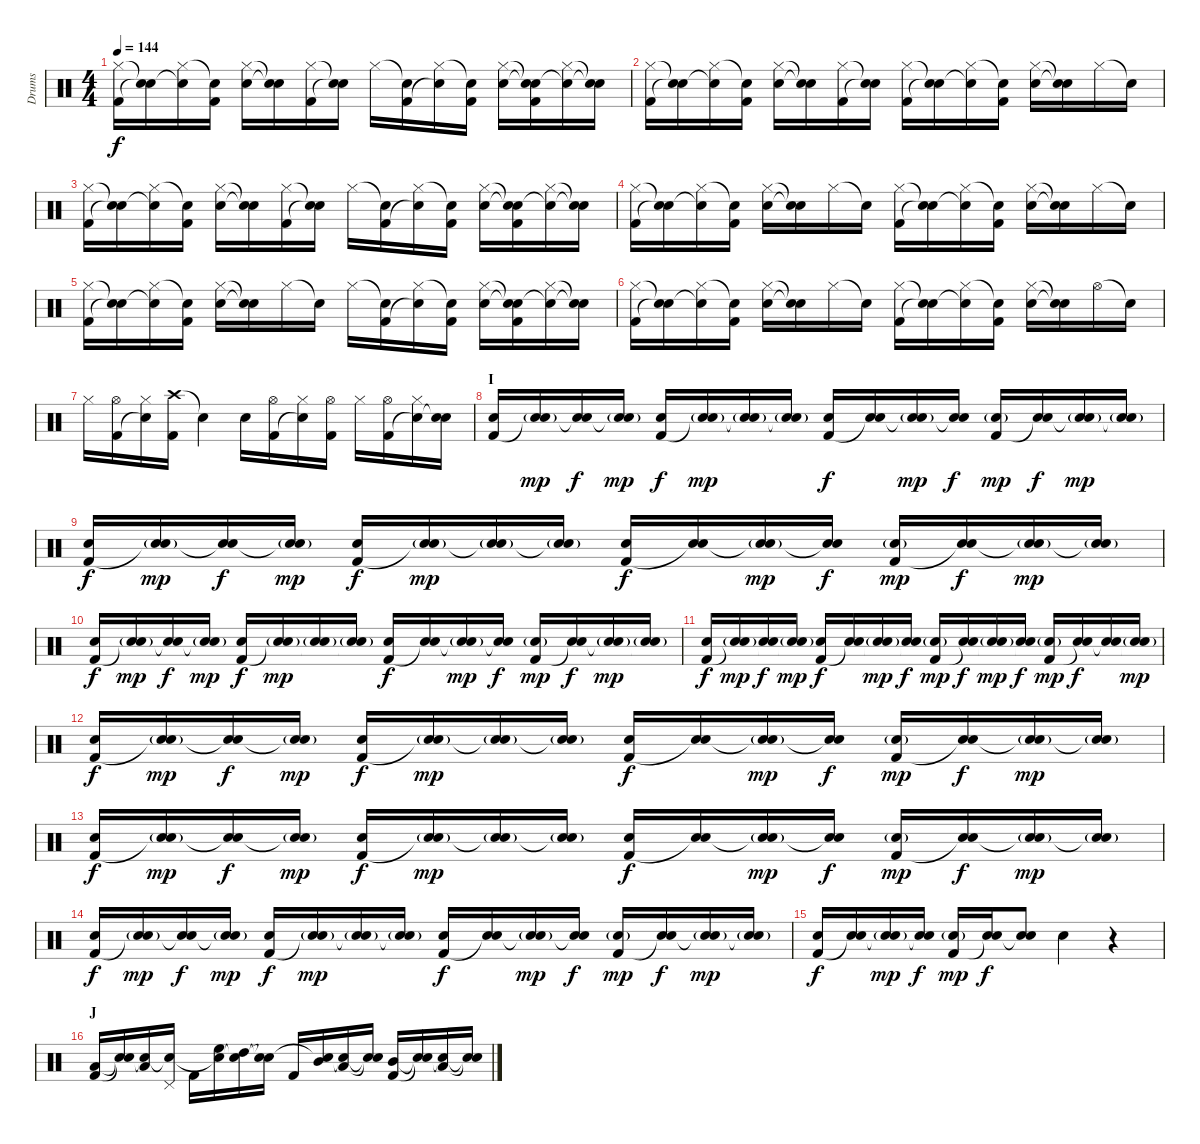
\track ("Drums" "Drums") {instrument percussion}
\staff {score}
\articulation defaults
\ts (4 4)
\tempo 144
\clef neutral
\ks c
("Hi-Hat (closed)" "Kick (hit) 2").16{dy f} ("Snare (hit)"{t} "Snare (hit)"{t}).16 ("Hi-Hat (closed)" "Snare (hit)"{t}).16 ("Snare (hit)"{t} "Kick (hit) 2").16 ("Hi-Hat (closed)" "Snare (hit) 2").16 ("Snare (hit)"{t} "Snare (hit)"{t}).16 ("Hi-Hat (closed)" "Kick (hit) 2").16 ("Snare (hit)"{t} "Snare (hit)"{t}).16 "Hi-Hat (closed)".16 ("Snare (hit)"{t} "Kick (hit) 2").16 ("Hi-Hat (closed)" "Snare (hit)"{t}).16 ("Snare (hit)"{t} "Kick (hit) 2").16 ("Hi-Hat (closed)" "Snare (hit) 2").16 ("Snare (hit)"{t} "Snare (hit)"{t} "Kick (hit) 2").16 ("Hi-Hat (closed)" "Snare (hit)"{t}).16 ("Snare (hit)"{t} "Snare (hit)"{t}).16 |
("Hi-Hat (closed)" "Kick (hit) 2").16 ("Snare (hit)"{t} "Snare (hit)"{t}).16 ("Hi-Hat (closed)" "Snare (hit)"{t}).16 ("Snare (hit)"{t} "Kick (hit) 2").16 ("Hi-Hat (closed)" "Snare (hit) 2").16 ("Snare (hit)"{t} "Snare (hit)"{t}).16 ("Hi-Hat (closed)" "Kick (hit) 2").16 ("Snare (hit)"{t} "Snare (hit)"{t}).16 ("Hi-Hat (closed)" "Kick (hit) 2").16 ("Snare (hit)"{t} "Snare (hit)"{t}).16 ("Hi-Hat (closed)" "Snare (hit)"{t}).16 ("Snare (hit)"{t} "Kick (hit) 2").16 ("Hi-Hat (closed)" "Snare (hit) 2").16 ("Snare (hit)"{t} "Snare (hit)"{t}).16 "Hi-Hat (closed)".16 "Snare (hit)"{t}.16 |
("Hi-Hat (closed)" "Kick (hit) 2").16 ("Snare (hit)"{t} "Snare (hit)"{t}).16 ("Hi-Hat (closed)" "Snare (hit)"{t}).16 ("Snare (hit)"{t} "Kick (hit) 2").16 ("Hi-Hat (closed)" "Snare (hit) 2").16 ("Snare (hit)"{t} "Snare (hit)"{t}).16 ("Hi-Hat (closed)" "Kick (hit) 2").16 ("Snare (hit)"{t} "Snare (hit)"{t}).16 "Hi-Hat (closed)".16 ("Snare (hit)"{t} "Kick (hit) 2").16 ("Hi-Hat (closed)" "Snare (hit)"{t}).16 ("Snare (hit)"{t} "Kick (hit) 2").16 ("Hi-Hat (closed)" "Snare (hit) 2").16 ("Snare (hit)"{t} "Snare (hit)"{t} "Kick (hit) 2").16 ("Hi-Hat (closed)" "Snare (hit)"{t}).16 ("Snare (hit)"{t} "Snare (hit)"{t}).16 |
("Hi-Hat (closed)" "Kick (hit) 2").16 ("Snare (hit)"{t} "Snare (hit)"{t}).16 ("Hi-Hat (closed)" "Snare (hit)"{t}).16 ("Snare (hit)"{t} "Kick (hit) 2").16 ("Hi-Hat (closed)" "Snare (hit) 2").16 ("Snare (hit)"{t} "Snare (hit)"{t}).16 "Hi-Hat (closed)".16 "Snare (hit)"{t}.16 ("Hi-Hat (closed)" "Kick (hit) 2").16 ("Snare (hit)"{t} "Snare (hit)"{t}).16 ("Hi-Hat (closed)" "Snare (hit)"{t}).16 ("Snare (hit)"{t} "Kick (hit) 2").16 ("Hi-Hat (closed)" "Snare (hit) 2").16 ("Snare (hit)"{t} "Snare (hit)"{t}).16 "Hi-Hat (closed)".16 "Snare (hit)"{t}.16 |
("Hi-Hat (closed)" "Kick (hit) 2").16 ("Snare (hit)"{t} "Snare (hit)"{t}).16 ("Hi-Hat (closed)" "Snare (hit)"{t}).16 ("Snare (hit)"{t} "Kick (hit) 2").16 ("Hi-Hat (closed)" "Snare (hit) 2").16 ("Snare (hit)"{t} "Snare (hit)"{t}).16 "Hi-Hat (closed)".16 "Snare (hit)"{t}.16 "Hi-Hat (closed)".16 ("Snare (hit)"{t} "Kick (hit) 2").16 ("Hi-Hat (closed)" "Snare (hit)"{t}).16 ("Snare (hit)"{t} "Kick (hit) 2").16 ("Hi-Hat (closed)" "Snare (hit) 2").16 ("Snare (hit)"{t} "Snare (hit)"{t} "Kick (hit) 2").16 ("Hi-Hat (closed)" "Snare (hit)"{t}).16 ("Snare (hit)"{t} "Snare (hit)"{t}).16 |
("Hi-Hat (closed)" "Kick (hit) 2").16 ("Snare (hit)"{t} "Snare (hit)"{t}).16 ("Hi-Hat (closed)" "Snare (hit)"{t}).16 ("Snare (hit)"{t} "Kick (hit) 2").16 ("Hi-Hat (closed)" "Snare (hit) 2").16 ("Snare (hit)"{t} "Snare (hit)"{t}).16 "Hi-Hat (closed)".16 "Snare (hit)"{t}.16 ("Hi-Hat (closed)" "Kick (hit) 2").16 ("Snare (hit)"{t} "Snare (hit)"{t}).16 ("Hi-Hat (closed)" "Snare (hit)"{t}).16 ("Snare (hit)"{t} "Kick (hit) 2").16 ("Hi-Hat (closed)" "Snare (hit) 2").16 ("Snare (hit)"{t} "Snare (hit)"{t}).16 "Hi-Hat (open)".16 "Snare (hit)"{t}.16 |
"Hi-Hat (closed)".16 ("Hi-Hat (open)" "Kick (hit) 2").16 ("Hi-Hat (closed)" "Snare (hit)"{t}).16 ("Crash high (hit)" "Kick (hit) 2").16 "Snare (hit)"{t}.4 "Snare (hit) 2".16 ("Hi-Hat (open)" "Kick (hit) 2").16 ("Hi-Hat (closed)" "Snare (hit)"{t}).16 ("Hi-Hat (open)" "Kick (hit) 2").16 "Hi-Hat (closed)".16 ("Hi-Hat (open)" "Kick (hit) 2").16 ("Hi-Hat (closed)" "Snare (hit)"{t}).16 ("Snare (hit) 2" "Snare (hit)"{t}).16 |
\section ("" "I")
("Snare (hit) 2" "Kick (hit) 2").16 ("Snare (hit) 2"{g} "Snare (hit)"{t}).16{dy mp} ("Snare (hit) 2" "Snare (hit)"{t}).16{dy f} ("Snare (hit) 2"{g} "Snare (hit)"{t}).16{dy mp} ("Snare (hit) 2" "Kick (hit) 2").16{dy f} ("Snare (hit) 2"{g} "Snare (hit)"{t}).16{dy mp} ("Snare (hit) 2"{g} "Snare (hit)"{t}).16 ("Snare (hit) 2"{g} "Snare (hit)"{t}).16 ("Snare (hit) 2" "Kick (hit) 2").16{dy f} ("Snare (hit) 2" "Snare (hit)"{t}).16 ("Snare (hit) 2"{g} "Snare (hit)"{t}).16{dy mp} ("Snare (hit) 2" "Snare (hit)"{t}).16{dy f} ("Snare (hit) 2"{g} "Kick (hit) 2").16{dy mp} ("Snare (hit) 2" "Snare (hit)"{t}).16{dy f} ("Snare (hit) 2"{g} "Snare (hit)"{t}).16{dy mp} ("Snare (hit) 2"{g} "Snare (hit)"{t}).16 |
("Snare (hit) 2" "Kick (hit) 2").16{dy f} ("Snare (hit) 2"{g} "Snare (hit)"{t}).16{dy mp} ("Snare (hit) 2" "Snare (hit)"{t}).16{dy f} ("Snare (hit) 2"{g} "Snare (hit)"{t}).16{dy mp} ("Snare (hit) 2" "Kick (hit) 2").16{dy f} ("Snare (hit) 2"{g} "Snare (hit)"{t}).16{dy mp} ("Snare (hit) 2"{g} "Snare (hit)"{t}).16 ("Snare (hit) 2"{g} "Snare (hit)"{t}).16 ("Snare (hit) 2" "Kick (hit) 2").16{dy f} ("Snare (hit) 2" "Snare (hit)"{t}).16 ("Snare (hit) 2"{g} "Snare (hit)"{t}).16{dy mp} ("Snare (hit) 2" "Snare (hit)"{t}).16{dy f} ("Snare (hit) 2"{g} "Kick (hit) 2").16{dy mp} ("Snare (hit) 2" "Snare (hit)"{t}).16{dy f} ("Snare (hit) 2"{g} "Snare (hit)"{t}).16{dy mp} ("Snare (hit) 2"{g} "Snare (hit)"{t}).16 |
("Snare (hit) 2" "Kick (hit) 2").16{dy f} ("Snare (hit) 2"{g} "Snare (hit)"{t}).16{dy mp} ("Snare (hit) 2" "Snare (hit)"{t}).16{dy f} ("Snare (hit) 2"{g} "Snare (hit)"{t}).16{dy mp} ("Snare (hit) 2" "Kick (hit) 2").16{dy f} ("Snare (hit) 2"{g} "Snare (hit)"{t}).16{dy mp} ("Snare (hit) 2"{g} "Snare (hit)"{t}).16 ("Snare (hit) 2"{g} "Snare (hit)"{t}).16 ("Snare (hit) 2" "Kick (hit) 2").16{dy f} ("Snare (hit) 2" "Snare (hit)"{t}).16 ("Snare (hit) 2"{g} "Snare (hit)"{t}).16{dy mp} ("Snare (hit) 2" "Snare (hit)"{t}).16{dy f} ("Snare (hit) 2"{g} "Kick (hit) 2").16{dy mp} ("Snare (hit) 2" "Snare (hit)"{t}).16{dy f} ("Snare (hit) 2"{g} "Snare (hit)"{t}).16{dy mp} ("Snare (hit) 2"{g} "Snare (hit)"{t}).16 |
("Snare (hit) 2" "Kick (hit) 2").16{dy f} ("Snare (hit) 2"{g} "Snare (hit)"{t}).16{dy mp} ("Snare (hit) 2" "Snare (hit)"{t}).16{dy f} ("Snare (hit) 2"{g} "Snare (hit)"{t}).16{dy mp} ("Snare (hit) 2" "Kick (hit) 2").16{dy f} ("Snare (hit) 2" "Snare (hit)"{t}).16 ("Snare (hit) 2"{g} "Snare (hit)"{t}).16{dy mp} ("Snare (hit) 2" "Snare (hit)"{t}).16{dy f} ("Snare (hit) 2"{g} "Kick (hit) 2").16{dy mp} ("Snare (hit) 2" "Snare (hit)"{t}).16{dy f} ("Snare (hit) 2"{g} "Snare (hit)"{t}).16{dy mp} ("Snare (hit) 2" "Snare (hit)"{t}).16{dy f} ("Snare (hit) 2"{g} "Kick (hit) 2").16{dy mp} ("Snare (hit) 2" "Snare (hit)"{t}).16{dy f} ("Snare (hit) 2" "Snare (hit)"{t}).16 ("Snare (hit) 2"{g} "Snare (hit)"{t}).16{dy mp} |
("Snare (hit) 2" "Kick (hit) 2").16{dy f} ("Snare (hit) 2"{g} "Snare (hit)"{t}).16{dy mp} ("Snare (hit) 2" "Snare (hit)"{t}).16{dy f} ("Snare (hit) 2"{g} "Snare (hit)"{t}).16{dy mp} ("Snare (hit) 2" "Kick (hit) 2").16{dy f} ("Snare (hit) 2"{g} "Snare (hit)"{t}).16{dy mp} ("Snare (hit) 2"{g} "Snare (hit)"{t}).16 ("Snare (hit) 2"{g} "Snare (hit)"{t}).16 ("Snare (hit) 2" "Kick (hit) 2").16{dy f} ("Snare (hit) 2" "Snare (hit)"{t}).16 ("Snare (hit) 2"{g} "Snare (hit)"{t}).16{dy mp} ("Snare (hit) 2" "Snare (hit)"{t}).16{dy f} ("Snare (hit) 2"{g} "Kick (hit) 2").16{dy mp} ("Snare (hit) 2" "Snare (hit)"{t}).16{dy f} ("Snare (hit) 2"{g} "Snare (hit)"{t}).16{dy mp} ("Snare (hit) 2"{g} "Snare (hit)"{t}).16 |
("Snare (hit) 2" "Kick (hit) 2").16{dy f} ("Snare (hit) 2"{g} "Snare (hit)"{t}).16{dy mp} ("Snare (hit) 2" "Snare (hit)"{t}).16{dy f} ("Snare (hit) 2"{g} "Snare (hit)"{t}).16{dy mp} ("Snare (hit) 2" "Kick (hit) 2").16{dy f} ("Snare (hit) 2"{g} "Snare (hit)"{t}).16{dy mp} ("Snare (hit) 2"{g} "Snare (hit)"{t}).16 ("Snare (hit) 2"{g} "Snare (hit)"{t}).16 ("Snare (hit) 2" "Kick (hit) 2").16{dy f} ("Snare (hit) 2" "Snare (hit)"{t}).16 ("Snare (hit) 2"{g} "Snare (hit)"{t}).16{dy mp} ("Snare (hit) 2" "Snare (hit)"{t}).16{dy f} ("Snare (hit) 2"{g} "Kick (hit) 2").16{dy mp} ("Snare (hit) 2" "Snare (hit)"{t}).16{dy f} ("Snare (hit) 2"{g} "Snare (hit)"{t}).16{dy mp} ("Snare (hit) 2"{g} "Snare (hit)"{t}).16 |
("Snare (hit) 2" "Kick (hit) 2").16{dy f} ("Snare (hit) 2"{g} "Snare (hit)"{t}).16{dy mp} ("Snare (hit) 2" "Snare (hit)"{t}).16{dy f} ("Snare (hit) 2"{g} "Snare (hit)"{t}).16{dy mp} ("Snare (hit) 2" "Kick (hit) 2").16{dy f} ("Snare (hit) 2"{g} "Snare (hit)"{t}).16{dy mp} ("Snare (hit) 2"{g} "Snare (hit)"{t}).16 ("Snare (hit) 2"{g} "Snare (hit)"{t}).16 ("Snare (hit) 2" "Kick (hit) 2").16{dy f} ("Snare (hit) 2" "Snare (hit)"{t}).16 ("Snare (hit) 2"{g} "Snare (hit)"{t}).16{dy mp} ("Snare (hit) 2" "Snare (hit)"{t}).16{dy f} ("Snare (hit) 2"{g} "Kick (hit) 2").16{dy mp} ("Snare (hit) 2" "Snare (hit)"{t}).16{dy f} ("Snare (hit) 2"{g} "Snare (hit)"{t}).16{dy mp} ("Snare (hit) 2"{g} "Snare (hit)"{t}).16 |
("Snare (hit) 2" "Kick (hit) 2").16{dy f} ("Snare (hit) 2" "Snare (hit)"{t}).16 ("Snare (hit) 2"{g} "Snare (hit)"{t}).16{dy mp} ("Snare (hit) 2" "Snare (hit)"{t}).16{dy f} ("Snare (hit) 2"{g} "Kick (hit) 2").16{dy mp} ("Snare (hit) 2" "Snare (hit)"{t}).16{dy f} ("Snare (hit) 2" "Snare (hit)"{t}).8 "Snare (hit) 2".4 r.4 |
\section ("" "J")
("Low Tom (hit)" "Kick (hit) 2").16 ("Snare (hit)"{t} "Snare (hit)"{t}).16 ("Low Tom (hit)" "Snare (hit)"{t}).16 ("Pedal Hi-Hat (hit)" "Snare (hit)"{t}).16 "Kick (hit) 2".16 ("High Floor Tom (hit)" "Snare (hit)"{t}).16 ("High Tom (hit)" "Snare (hit)"{t}).16 ("Snare (hit)"{t} "Snare (hit)"{t}).16 "Kick (hit) 2".16 ("Mid Tom (hit)" "Snare (hit)"{t}).16 ("Low Tom (hit)" "Snare (hit)"{t}).16 ("Snare (hit)"{t} "Snare (hit)"{t}).16 ("Mid Tom (hit)" "Kick (hit) 2").16 ("Snare (hit)"{t} "Snare (hit)"{t}).16 ("Low Tom (hit)" "Snare (hit)"{t}).16 ("Snare (hit)"{t} "Snare (hit)"{t}).16
